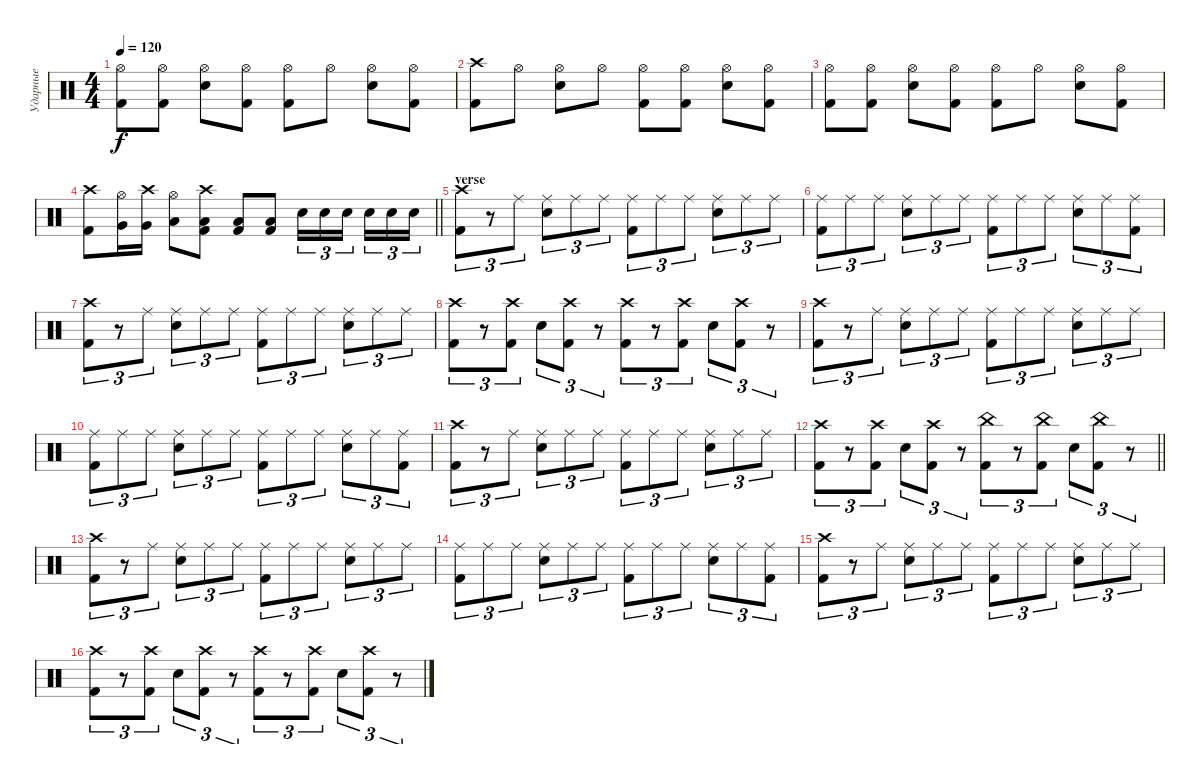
\track ("Ударные" "Ударные") {instrument percussion}
\staff {score}
\articulation defaults
\ts (4 4)
\tempo 120
\clef neutral
\ks c
("Hi-Hat (open)" "Kick (hit) 2").8{dy f} ("Hi-Hat (open)" "Kick (hit) 2").8 ("Hi-Hat (open)" "Snare (hit) 2").8 ("Hi-Hat (open)" "Kick (hit) 2").8 ("Hi-Hat (open)" "Kick (hit) 2").8 "Hi-Hat (open)".8 ("Hi-Hat (open)" "Snare (hit) 2").8 ("Hi-Hat (open)" "Kick (hit) 2").8 |
("Crash high (hit)" "Kick (hit) 2").8 "Hi-Hat (open)".8 ("Hi-Hat (open)" "Snare (hit) 2").8 "Hi-Hat (open)".8 ("Hi-Hat (open)" "Kick (hit) 2").8 ("Hi-Hat (open)" "Kick (hit) 2").8 ("Hi-Hat (open)" "Snare (hit) 2").8 ("Hi-Hat (open)" "Kick (hit) 2").8 |
("Hi-Hat (open)" "Kick (hit) 2").8 ("Hi-Hat (open)" "Kick (hit) 2").8 ("Hi-Hat (open)" "Snare (hit) 2").8 ("Hi-Hat (open)" "Kick (hit) 2").8 ("Hi-Hat (open)" "Kick (hit) 2").8 "Hi-Hat (open)".8 ("Hi-Hat (open)" "Snare (hit) 2").8 ("Hi-Hat (open)" "Kick (hit) 2").8 |
\barLineRight lightlight
("Crash high (hit)" "Kick (hit) 2").8 ("Hi-Hat (open)" "Very Low Tom (hit)").16 ("Crash high (hit)" "Very Low Tom (hit)").16 ("Hi-Hat (open)" "Low Floor Tom (hit)").8 ("Crash high (hit)" "Low Floor Tom (hit)" "Kick (hit) 2").8 ("Low Tom (hit)" "Kick (hit) 2").8 ("Low Tom (hit)" "Kick (hit) 2").8 "Snare (hit) 2".16{tu (3 2)} "Snare (hit) 2".16{tu (3 2)} "Snare (hit) 2".16{tu (3 2) beam splitsecondary} "Snare (hit) 2".16{tu (3 2)} "Snare (hit) 2".16{tu (3 2)} "Snare (hit) 2".16{tu (3 2)} |
\section ("" "verse")
("Crash high (hit)" "Kick (hit) 2").8{tu (3 2)} r.8{tu (3 2)} "Ride (middle)".8{tu (3 2)} ("Ride (middle)" "Snare (hit) 2").8{tu (3 2)} "Ride (middle)".8{tu (3 2)} "Ride (middle)".8{tu (3 2)} ("Ride (middle)" "Kick (hit) 2").8{tu (3 2)} "Ride (middle)".8{tu (3 2)} "Ride (middle)".8{tu (3 2)} ("Ride (middle)" "Snare (hit) 2").8{tu (3 2)} "Ride (middle)".8{tu (3 2)} "Ride (middle)".8{tu (3 2)} |
("Ride (middle)" "Kick (hit) 2").8{tu (3 2)} "Ride (middle)".8{tu (3 2)} "Ride (middle)".8{tu (3 2)} ("Ride (middle)" "Snare (hit) 2").8{tu (3 2)} "Ride (middle)".8{tu (3 2)} "Ride (middle)".8{tu (3 2)} ("Ride (middle)" "Kick (hit) 2").8{tu (3 2)} "Ride (middle)".8{tu (3 2)} "Ride (middle)".8{tu (3 2)} ("Ride (middle)" "Snare (hit) 2").8{tu (3 2)} "Ride (middle)".8{tu (3 2)} ("Ride (middle)" "Kick (hit) 2").8{tu (3 2)} |
("Crash high (hit)" "Kick (hit) 2").8{tu (3 2)} r.8{tu (3 2)} "Ride (middle)".8{tu (3 2)} ("Ride (middle)" "Snare (hit) 2").8{tu (3 2)} "Ride (middle)".8{tu (3 2)} "Ride (middle)".8{tu (3 2)} ("Ride (middle)" "Kick (hit) 2").8{tu (3 2)} "Ride (middle)".8{tu (3 2)} "Ride (middle)".8{tu (3 2)} ("Ride (middle)" "Snare (hit) 2").8{tu (3 2)} "Ride (middle)".8{tu (3 2)} "Ride (middle)".8{tu (3 2)} |
("Crash high (hit)" "Kick (hit) 2").8{tu (3 2)} r.8{tu (3 2)} ("Crash high (hit)" "Kick (hit) 2").8{tu (3 2)} "Snare (hit) 2".8{tu (3 2)} ("Crash high (hit)" "Kick (hit) 2").8{tu (3 2)} r.8{tu (3 2)} ("Crash high (hit)" "Kick (hit) 2").8{tu (3 2)} r.8{tu (3 2)} ("Crash high (hit)" "Kick (hit) 2").8{tu (3 2)} "Snare (hit) 2".8{tu (3 2)} ("Crash high (hit)" "Kick (hit) 2").8{tu (3 2)} r.8{tu (3 2)} |
("Crash high (hit)" "Kick (hit) 2").8{tu (3 2)} r.8{tu (3 2)} "Ride (middle)".8{tu (3 2)} ("Ride (middle)" "Snare (hit) 2").8{tu (3 2)} "Ride (middle)".8{tu (3 2)} "Ride (middle)".8{tu (3 2)} ("Ride (middle)" "Kick (hit) 2").8{tu (3 2)} "Ride (middle)".8{tu (3 2)} "Ride (middle)".8{tu (3 2)} ("Ride (middle)" "Snare (hit) 2").8{tu (3 2)} "Ride (middle)".8{tu (3 2)} "Ride (middle)".8{tu (3 2)} |
("Ride (middle)" "Kick (hit) 2").8{tu (3 2)} "Ride (middle)".8{tu (3 2)} "Ride (middle)".8{tu (3 2)} ("Ride (middle)" "Snare (hit) 2").8{tu (3 2)} "Ride (middle)".8{tu (3 2)} "Ride (middle)".8{tu (3 2)} ("Ride (middle)" "Kick (hit) 2").8{tu (3 2)} "Ride (middle)".8{tu (3 2)} "Ride (middle)".8{tu (3 2)} ("Ride (middle)" "Snare (hit) 2").8{tu (3 2)} "Ride (middle)".8{tu (3 2)} ("Ride (middle)" "Kick (hit) 2").8{tu (3 2)} |
("Crash high (hit)" "Kick (hit) 2").8{tu (3 2)} r.8{tu (3 2)} "Ride (middle)".8{tu (3 2)} ("Ride (middle)" "Snare (hit) 2").8{tu (3 2)} "Ride (middle)".8{tu (3 2)} "Ride (middle)".8{tu (3 2)} ("Ride (middle)" "Kick (hit) 2").8{tu (3 2)} "Ride (middle)".8{tu (3 2)} "Ride (middle)".8{tu (3 2)} ("Ride (middle)" "Snare (hit) 2").8{tu (3 2)} "Ride (middle)".8{tu (3 2)} "Ride (middle)".8{tu (3 2)} |
\barLineRight lightlight
("Crash high (hit)" "Kick (hit) 2").8{tu (3 2)} r.8{tu (3 2)} ("Crash high (hit)" "Kick (hit) 2").8{tu (3 2)} "Snare (hit) 2".8{tu (3 2)} ("Crash high (hit)" "Kick (hit) 2").8{tu (3 2)} r.8{tu (3 2)} ("China (hit)" "Kick (hit) 2").8{tu (3 2)} r.8{tu (3 2)} ("China (hit)" "Kick (hit) 2").8{tu (3 2)} "Snare (hit) 2".8{tu (3 2)} ("China (hit)" "Kick (hit) 2").8{tu (3 2)} r.8{tu (3 2)} |
("Crash high (hit)" "Kick (hit) 2").8{tu (3 2)} r.8{tu (3 2)} "Ride (middle)".8{tu (3 2)} ("Ride (middle)" "Snare (hit) 2").8{tu (3 2)} "Ride (middle)".8{tu (3 2)} "Ride (middle)".8{tu (3 2)} ("Ride (middle)" "Kick (hit) 2").8{tu (3 2)} "Ride (middle)".8{tu (3 2)} "Ride (middle)".8{tu (3 2)} ("Ride (middle)" "Snare (hit) 2").8{tu (3 2)} "Ride (middle)".8{tu (3 2)} "Ride (middle)".8{tu (3 2)} |
("Ride (middle)" "Kick (hit) 2").8{tu (3 2)} "Ride (middle)".8{tu (3 2)} "Ride (middle)".8{tu (3 2)} ("Ride (middle)" "Snare (hit) 2").8{tu (3 2)} "Ride (middle)".8{tu (3 2)} "Ride (middle)".8{tu (3 2)} ("Ride (middle)" "Kick (hit) 2").8{tu (3 2)} "Ride (middle)".8{tu (3 2)} "Ride (middle)".8{tu (3 2)} ("Ride (middle)" "Snare (hit) 2").8{tu (3 2)} "Ride (middle)".8{tu (3 2)} ("Ride (middle)" "Kick (hit) 2").8{tu (3 2)} |
("Crash high (hit)" "Kick (hit) 2").8{tu (3 2)} r.8{tu (3 2)} "Ride (middle)".8{tu (3 2)} ("Ride (middle)" "Snare (hit) 2").8{tu (3 2)} "Ride (middle)".8{tu (3 2)} "Ride (middle)".8{tu (3 2)} ("Ride (middle)" "Kick (hit) 2").8{tu (3 2)} "Ride (middle)".8{tu (3 2)} "Ride (middle)".8{tu (3 2)} ("Ride (middle)" "Snare (hit) 2").8{tu (3 2)} "Ride (middle)".8{tu (3 2)} "Ride (middle)".8{tu (3 2)} |
("Crash high (hit)" "Kick (hit) 2").8{tu (3 2)} r.8{tu (3 2)} ("Crash high (hit)" "Kick (hit) 2").8{tu (3 2)} "Snare (hit) 2".8{tu (3 2)} ("Crash high (hit)" "Kick (hit) 2").8{tu (3 2)} r.8{tu (3 2)} ("Crash high (hit)" "Kick (hit) 2").8{tu (3 2)} r.8{tu (3 2)} ("Crash high (hit)" "Kick (hit) 2").8{tu (3 2)} "Snare (hit) 2".8{tu (3 2)} ("Crash high (hit)" "Kick (hit) 2").8{tu (3 2)} r.8{tu (3 2)}
